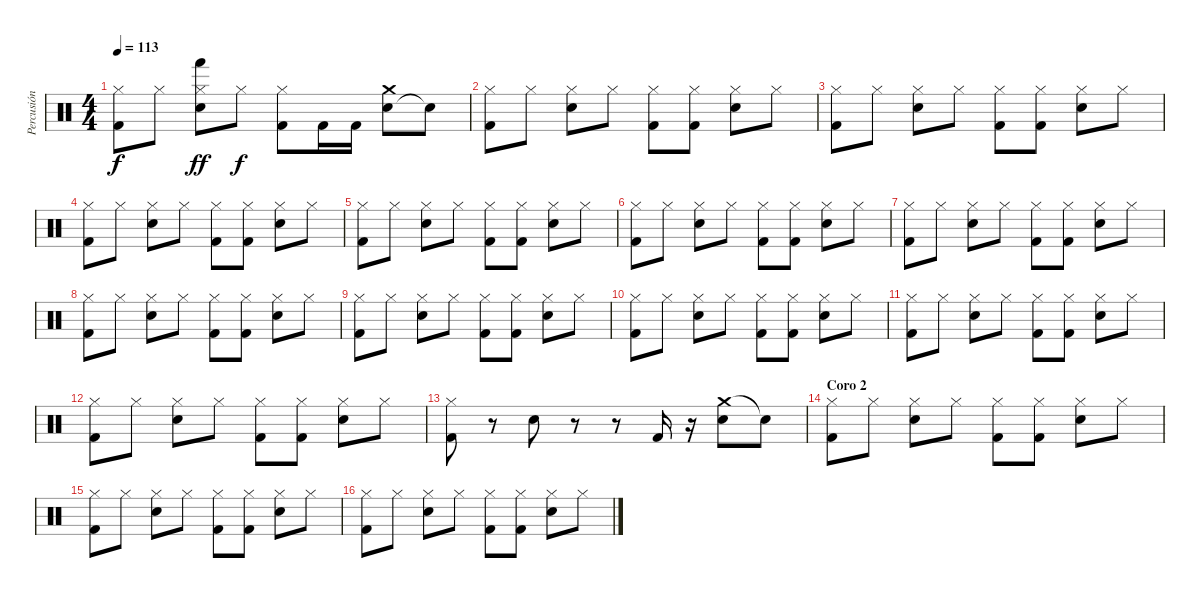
\track ("Percusión" "Percusión") {instrument percussion}
\staff {score}
\articulation defaults
\ts (4 4)
\tempo 113
\clef neutral
\ks c
("Kick (hit) 2" "Hi-Hat (closed)").8{dy f} "Hi-Hat (closed)".8 ("Electric Snare (hit)" "Hi-Hat (closed)" "Hand (hit)").8{dy ff} "Hi-Hat (closed)".8{dy f} ("Kick (hit) 2" "Hi-Hat (closed)").8 "Kick (hit) 2".16 "Kick (hit) 2".16 ("Electric Snare (hit)" "Crash medium (hit)").8 "Snare (hit)"{t}.8 |
("Kick (hit) 2" "Hi-Hat (closed)").8 "Hi-Hat (closed)".8 ("Electric Snare (hit)" "Hi-Hat (closed)").8 "Hi-Hat (closed)".8 ("Kick (hit) 2" "Hi-Hat (closed)").8 ("Kick (hit) 2" "Hi-Hat (closed)").8 ("Electric Snare (hit)" "Hi-Hat (closed)").8 "Hi-Hat (closed)".8 |
("Kick (hit) 2" "Hi-Hat (closed)").8 "Hi-Hat (closed)".8 ("Electric Snare (hit)" "Hi-Hat (closed)").8 "Hi-Hat (closed)".8 ("Kick (hit) 2" "Hi-Hat (closed)").8 ("Kick (hit) 2" "Hi-Hat (closed)").8 ("Electric Snare (hit)" "Hi-Hat (closed)").8 "Hi-Hat (closed)".8 |
("Kick (hit) 2" "Hi-Hat (closed)").8 "Hi-Hat (closed)".8 ("Electric Snare (hit)" "Hi-Hat (closed)").8 "Hi-Hat (closed)".8 ("Kick (hit) 2" "Hi-Hat (closed)").8 ("Kick (hit) 2" "Hi-Hat (closed)").8 ("Electric Snare (hit)" "Hi-Hat (closed)").8 "Hi-Hat (closed)".8 |
("Kick (hit) 2" "Hi-Hat (closed)").8 "Hi-Hat (closed)".8 ("Electric Snare (hit)" "Hi-Hat (closed)").8 "Hi-Hat (closed)".8 ("Kick (hit) 2" "Hi-Hat (closed)").8 ("Kick (hit) 2" "Hi-Hat (closed)").8 ("Electric Snare (hit)" "Hi-Hat (closed)").8 "Hi-Hat (closed)".8 |
("Kick (hit) 2" "Hi-Hat (closed)").8 "Hi-Hat (closed)".8 ("Electric Snare (hit)" "Hi-Hat (closed)").8 "Hi-Hat (closed)".8 ("Kick (hit) 2" "Hi-Hat (closed)").8 ("Kick (hit) 2" "Hi-Hat (closed)").8 ("Electric Snare (hit)" "Hi-Hat (closed)").8 "Hi-Hat (closed)".8 |
("Kick (hit) 2" "Hi-Hat (closed)").8 "Hi-Hat (closed)".8 ("Electric Snare (hit)" "Hi-Hat (closed)").8 "Hi-Hat (closed)".8 ("Kick (hit) 2" "Hi-Hat (closed)").8 ("Kick (hit) 2" "Hi-Hat (closed)").8 ("Electric Snare (hit)" "Hi-Hat (closed)").8 "Hi-Hat (closed)".8 |
("Kick (hit) 2" "Hi-Hat (closed)").8 "Hi-Hat (closed)".8 ("Electric Snare (hit)" "Hi-Hat (closed)").8 "Hi-Hat (closed)".8 ("Kick (hit) 2" "Hi-Hat (closed)").8 ("Kick (hit) 2" "Hi-Hat (closed)").8 ("Electric Snare (hit)" "Hi-Hat (closed)").8 "Hi-Hat (closed)".8 |
("Kick (hit) 2" "Hi-Hat (closed)").8 "Hi-Hat (closed)".8 ("Electric Snare (hit)" "Hi-Hat (closed)").8 "Hi-Hat (closed)".8 ("Kick (hit) 2" "Hi-Hat (closed)").8 ("Kick (hit) 2" "Hi-Hat (closed)").8 ("Electric Snare (hit)" "Hi-Hat (closed)").8 "Hi-Hat (closed)".8 |
("Kick (hit) 2" "Hi-Hat (closed)").8 "Hi-Hat (closed)".8 ("Electric Snare (hit)" "Hi-Hat (closed)").8 "Hi-Hat (closed)".8 ("Kick (hit) 2" "Hi-Hat (closed)").8 ("Kick (hit) 2" "Hi-Hat (closed)").8 ("Electric Snare (hit)" "Hi-Hat (closed)").8 "Hi-Hat (closed)".8 |
("Kick (hit) 2" "Hi-Hat (closed)").8 "Hi-Hat (closed)".8 ("Electric Snare (hit)" "Hi-Hat (closed)").8 "Hi-Hat (closed)".8 ("Kick (hit) 2" "Hi-Hat (closed)").8 ("Kick (hit) 2" "Hi-Hat (closed)").8 ("Electric Snare (hit)" "Hi-Hat (closed)").8 "Hi-Hat (closed)".8 |
("Kick (hit) 2" "Hi-Hat (closed)").8 "Hi-Hat (closed)".8 ("Electric Snare (hit)" "Hi-Hat (closed)").8 "Hi-Hat (closed)".8 ("Kick (hit) 2" "Hi-Hat (closed)").8 ("Kick (hit) 2" "Hi-Hat (closed)").8 ("Electric Snare (hit)" "Hi-Hat (closed)").8 "Hi-Hat (closed)".8 |
("Kick (hit) 2" "Hi-Hat (closed)").8 r.8 "Snare (hit) 2".8 r.8 r.8 "Kick (hit) 2".16 r.16 ("Crash medium (hit)" "Electric Snare (hit)").8 "Snare (hit)"{t}.8 |
\section ("" "Coro 2")
("Kick (hit) 2" "Hi-Hat (closed)").8 "Hi-Hat (closed)".8 ("Electric Snare (hit)" "Hi-Hat (closed)").8 "Hi-Hat (closed)".8 ("Kick (hit) 2" "Hi-Hat (closed)").8 ("Kick (hit) 2" "Hi-Hat (closed)").8 ("Electric Snare (hit)" "Hi-Hat (closed)").8 "Hi-Hat (closed)".8 |
("Kick (hit) 2" "Hi-Hat (closed)").8 "Hi-Hat (closed)".8 ("Electric Snare (hit)" "Hi-Hat (closed)").8 "Hi-Hat (closed)".8 ("Kick (hit) 2" "Hi-Hat (closed)").8 ("Kick (hit) 2" "Hi-Hat (closed)").8 ("Electric Snare (hit)" "Hi-Hat (closed)").8 "Hi-Hat (closed)".8 |
("Kick (hit) 2" "Hi-Hat (closed)").8 "Hi-Hat (closed)".8 ("Electric Snare (hit)" "Hi-Hat (closed)").8 "Hi-Hat (closed)".8 ("Kick (hit) 2" "Hi-Hat (closed)").8 ("Kick (hit) 2" "Hi-Hat (closed)").8 ("Electric Snare (hit)" "Hi-Hat (closed)").8 "Hi-Hat (closed)".8
